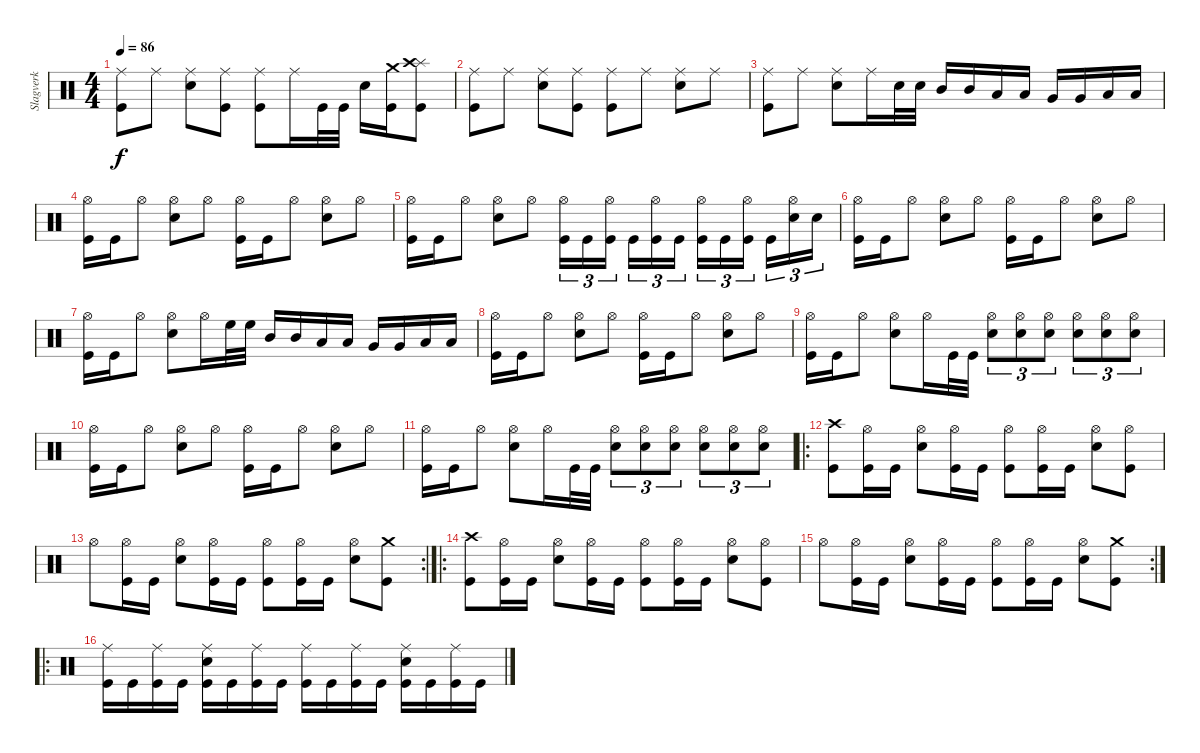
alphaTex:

\track ("Slagverk" "Slagverk") {instrument percussion}
\staff {score}
\articulation defaults
\ts (4 4)
\tempo 86
\clef neutral
\ks c
("Ride (middle)" "Kick (hit)").8{dy f} "Ride (middle)".8 ("Ride (middle)" "Electric Snare (hit)").8 ("Ride (middle)" "Kick (hit)").8 ("Ride (middle)" "Kick (hit)").8 "Ride (middle)".16 "Kick (hit)".32 "Kick (hit)".32 "Electric Snare (hit)".16 ("Crash medium (hit)" "Kick (hit)").16 ("Splash (hit)" "Crash high (hit)" "Kick (hit)").8 |
("Ride (middle)" "Kick (hit)").8 "Ride (middle)".8 ("Ride (middle)" "Electric Snare (hit)").8 ("Ride (middle)" "Kick (hit)").8 ("Ride (middle)" "Kick (hit)").8 "Ride (middle)".8 ("Ride (middle)" "Electric Snare (hit)").8 "Ride (middle)".8 |
("Ride (middle)" "Kick (hit)").8 "Ride (middle)".8 ("Ride (middle)" "Electric Snare (hit)").8 "Ride (middle)".16 "Electric Snare (hit)".32 "Electric Snare (hit)".32 "Mid Tom (hit)".16 "Mid Tom (hit)".16 "Low Tom (hit)".16 "Low Tom (hit)".16 "Very Low Tom (hit)".16 "Very Low Tom (hit)".16 "Low Floor Tom (hit)".16 "Low Floor Tom (hit)".16 |
("Hi-Hat (open)" "Kick (hit)").16 "Kick (hit)".16 "Hi-Hat (open)".8 ("Hi-Hat (open)" "Electric Snare (hit)").8 "Hi-Hat (open)".8 ("Hi-Hat (open)" "Kick (hit)").16 "Kick (hit)".16 "Hi-Hat (open)".8 ("Hi-Hat (open)" "Electric Snare (hit)").8 "Hi-Hat (open)".8 |
("Hi-Hat (open)" "Kick (hit)").16 "Kick (hit)".16 "Hi-Hat (open)".8 ("Hi-Hat (open)" "Electric Snare (hit)").8 "Hi-Hat (open)".8 ("Hi-Hat (open)" "Kick (hit)").16{tu (3 2)} "Kick (hit)".16{tu (3 2)} ("Hi-Hat (open)" "Kick (hit)").16{tu (3 2)} "Kick (hit)".16{tu (3 2)} ("Hi-Hat (open)" "Kick (hit)").16{tu (3 2)} "Kick (hit)".16{tu (3 2)} ("Hi-Hat (open)" "Kick (hit)").16{tu (3 2)} "Kick (hit)".16{tu (3 2)} ("Hi-Hat (open)" "Kick (hit)").16{tu (3 2)} "Kick (hit)".16{tu (3 2)} ("Hi-Hat (open)" "Electric Snare (hit)").16{tu (3 2)} "Electric Snare (hit)".16{tu (3 2)} |
("Hi-Hat (open)" "Kick (hit)").16 "Kick (hit)".16 "Hi-Hat (open)".8 ("Hi-Hat (open)" "Electric Snare (hit)").8 "Hi-Hat (open)".8 ("Hi-Hat (open)" "Kick (hit)").16 "Kick (hit)".16 "Hi-Hat (open)".8 ("Hi-Hat (open)" "Electric Snare (hit)").8 "Hi-Hat (open)".8 |
("Hi-Hat (open)" "Kick (hit)").16 "Kick (hit)".16 "Hi-Hat (open)".8 ("Hi-Hat (open)" "Electric Snare (hit)").8 "Hi-Hat (open)".16 "High Floor Tom (hit)".32 "High Floor Tom (hit)".32 "Mid Tom (hit)".16 "Mid Tom (hit)".16 "Low Tom (hit)".16 "Low Tom (hit)".16 "Very Low Tom (hit)".16 "Very Low Tom (hit)".16 "Low Floor Tom (hit)".16 "Low Floor Tom (hit)".16 |
("Hi-Hat (open)" "Kick (hit)").16 "Kick (hit)".16 "Hi-Hat (open)".8 ("Hi-Hat (open)" "Electric Snare (hit)").8 "Hi-Hat (open)".8 ("Hi-Hat (open)" "Kick (hit)").16 "Kick (hit)".16 "Hi-Hat (open)".8 ("Hi-Hat (open)" "Electric Snare (hit)").8 "Hi-Hat (open)".8 |
("Hi-Hat (open)" "Kick (hit)").16 "Kick (hit)".16 "Hi-Hat (open)".8 ("Hi-Hat (open)" "Electric Snare (hit)").8 "Hi-Hat (open)".16 "Kick (hit)".32 "Kick (hit)".32 ("Hi-Hat (open)" "Electric Snare (hit)").8{tu (3 2)} ("Hi-Hat (open)" "Electric Snare (hit)").8{tu (3 2)} ("Hi-Hat (open)" "Electric Snare (hit)").8{tu (3 2)} ("Hi-Hat (open)" "Electric Snare (hit)").8{tu (3 2)} ("Hi-Hat (open)" "Electric Snare (hit)").8{tu (3 2)} ("Hi-Hat (open)" "Electric Snare (hit)").8{tu (3 2)} |
("Hi-Hat (open)" "Kick (hit)").16 "Kick (hit)".16 "Hi-Hat (open)".8 ("Hi-Hat (open)" "Electric Snare (hit)").8 "Hi-Hat (open)".8 ("Hi-Hat (open)" "Kick (hit)").16 "Kick (hit)".16 "Hi-Hat (open)".8 ("Hi-Hat (open)" "Electric Snare (hit)").8 "Hi-Hat (open)".8 |
("Hi-Hat (open)" "Kick (hit)").16 "Kick (hit)".16 "Hi-Hat (open)".8 ("Hi-Hat (open)" "Electric Snare (hit)").8 "Hi-Hat (open)".16 "Kick (hit)".32 "Kick (hit)".32 ("Hi-Hat (open)" "Electric Snare (hit)").8{tu (3 2)} ("Hi-Hat (open)" "Electric Snare (hit)").8{tu (3 2)} ("Hi-Hat (open)" "Electric Snare (hit)").8{tu (3 2)} ("Hi-Hat (open)" "Electric Snare (hit)").8{tu (3 2)} ("Hi-Hat (open)" "Electric Snare (hit)").8{tu (3 2)} ("Hi-Hat (open)" "Electric Snare (hit)").8{tu (3 2)} |
\ro
("Crash high (hit)" "Kick (hit)").8 ("Hi-Hat (open)" "Kick (hit)").16 "Kick (hit)".16 ("Hi-Hat (open)" "Electric Snare (hit)").8 ("Hi-Hat (open)" "Kick (hit)").16 "Kick (hit)".16 ("Hi-Hat (open)" "Kick (hit)").8 ("Hi-Hat (open)" "Kick (hit)").16 "Kick (hit)".16 ("Hi-Hat (open)" "Electric Snare (hit)").8 ("Hi-Hat (open)" "Kick (hit)").8 |
\rc 2 "Hi-Hat (open)".8
("Hi-Hat (open)" "Kick (hit)").16 "Kick (hit)".16 ("Hi-Hat (open)" "Electric Snare (hit)").8 ("Hi-Hat (open)" "Kick (hit)").16 "Kick (hit)".16 ("Hi-Hat (open)" "Kick (hit)").8 ("Hi-Hat (open)" "Kick (hit)").16 "Kick (hit)".16 ("Hi-Hat (open)" "Electric Snare (hit)").8 ("Crash medium (hit)" "Kick (hit)").8 |
\ro
("Crash high (hit)" "Kick (hit)").8 ("Hi-Hat (open)" "Kick (hit)").16 "Kick (hit)".16 ("Hi-Hat (open)" "Electric Snare (hit)").8 ("Hi-Hat (open)" "Kick (hit)").16 "Kick (hit)".16 ("Hi-Hat (open)" "Kick (hit)").8 ("Hi-Hat (open)" "Kick (hit)").16 "Kick (hit)".16 ("Hi-Hat (open)" "Electric Snare (hit)").8 ("Hi-Hat (open)" "Kick (hit)").8 |
\rc 2 "Hi-Hat (open)".8
("Hi-Hat (open)" "Kick (hit)").16 "Kick (hit)".16 ("Hi-Hat (open)" "Electric Snare (hit)").8 ("Hi-Hat (open)" "Kick (hit)").16 "Kick (hit)".16 ("Hi-Hat (open)" "Kick (hit)").8 ("Hi-Hat (open)" "Kick (hit)").16 "Kick (hit)".16 ("Hi-Hat (open)" "Electric Snare (hit)").8 ("Crash medium (hit)" "Kick (hit)").8 |
\ro
("Ride (middle)" "Kick (hit)").16 "Kick (hit)".16 ("Ride (middle)" "Kick (hit)").16 "Kick (hit)".16 ("Ride (middle)" "Electric Snare (hit)" "Kick (hit)").16 "Kick (hit)".16 ("Ride (middle)" "Kick (hit)").16 "Kick (hit)".16 ("Ride (middle)" "Kick (hit)").16 "Kick (hit)".16 ("Ride (middle)" "Kick (hit)").16 "Kick (hit)".16 ("Ride (middle)" "Electric Snare (hit)" "Kick (hit)").16 "Kick (hit)".16 ("Ride (middle)" "Kick (hit)").16 "Kick (hit)".16
